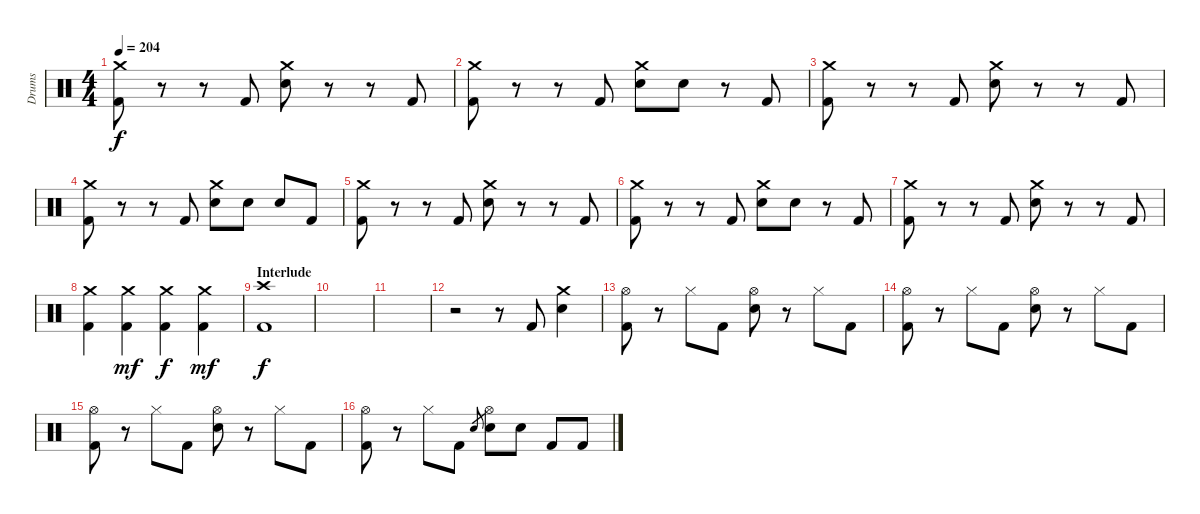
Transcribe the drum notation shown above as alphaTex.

\track ("Drums" "Drums") {instrument percussion}
\staff {score}
\articulation defaults
\ts (4 4)
\tempo 204
\clef neutral
\ks c
("Crash medium (hit)" "Kick (hit) 2").8{dy f} r.8 r.8 "Kick (hit) 2".8 ("Crash medium (hit)" "Electric Snare (hit)").8 r.8 r.8 "Kick (hit) 2".8 |
("Crash medium (hit)" "Kick (hit) 2").8 r.8 r.8 "Kick (hit) 2".8 ("Crash medium (hit)" "Electric Snare (hit)").8 "Electric Snare (hit)".8 r.8 "Kick (hit) 2".8 |
("Crash medium (hit)" "Kick (hit) 2").8 r.8 r.8 "Kick (hit) 2".8 ("Crash medium (hit)" "Electric Snare (hit)").8 r.8 r.8 "Kick (hit) 2".8 |
("Crash medium (hit)" "Kick (hit) 2").8 r.8 r.8 "Kick (hit) 2".8 ("Crash medium (hit)" "Electric Snare (hit)").8 "Electric Snare (hit)".8 "Electric Snare (hit)".8 "Kick (hit) 2".8 |
("Crash medium (hit)" "Kick (hit) 2").8 r.8 r.8 "Kick (hit) 2".8 ("Crash medium (hit)" "Electric Snare (hit)").8 r.8 r.8 "Kick (hit) 2".8 |
("Crash medium (hit)" "Kick (hit) 2").8 r.8 r.8 "Kick (hit) 2".8 ("Crash medium (hit)" "Electric Snare (hit)").8 "Electric Snare (hit)".8 r.8 "Kick (hit) 2".8 |
("Crash medium (hit)" "Kick (hit) 2").8 r.8 r.8 "Kick (hit) 2".8 ("Crash medium (hit)" "Electric Snare (hit)").8 r.8 r.8 "Kick (hit) 2".8 |
("Crash medium (hit)" "Kick (hit) 2").4 ("Crash medium (hit)" "Kick (hit) 2").4{dy mf} ("Crash medium (hit)" "Kick (hit) 2").4{dy f} ("Crash medium (hit)" "Kick (hit) 2").4{dy mf} |
\section ("" "Interlude")
("Crash high (hit)" "Kick (hit) 2").1{dy f} |
|
|
r.2 r.8 "Kick (hit) 2".8 ("Crash medium (hit)" "Electric Snare (hit)").4 |
("Hi-Hat (open)" "Kick (hit) 2").8 r.8 "Hi-Hat (closed)".8 "Kick (hit) 2".8 ("Hi-Hat (open)" "Electric Snare (hit)").8 r.8 "Hi-Hat (closed)".8 "Kick (hit) 2".8 |
("Hi-Hat (open)" "Kick (hit) 2").8 r.8 "Hi-Hat (closed)".8 "Kick (hit) 2".8 ("Hi-Hat (open)" "Electric Snare (hit)").8 r.8 "Hi-Hat (closed)".8 "Kick (hit) 2".8 |
("Hi-Hat (open)" "Kick (hit) 2").8 r.8 "Hi-Hat (closed)".8 "Kick (hit) 2".8 ("Hi-Hat (open)" "Electric Snare (hit)").8 r.8 "Hi-Hat (closed)".8 "Kick (hit) 2".8 |
("Hi-Hat (open)" "Kick (hit) 2").8 r.8 "Hi-Hat (closed)".8 "Kick (hit) 2".8 "Electric Snare (hit)".8{gr} ("Hi-Hat (open)" "Electric Snare (hit)").8 "Electric Snare (hit)".8 "Kick (hit) 2".8 "Kick (hit) 2".8
